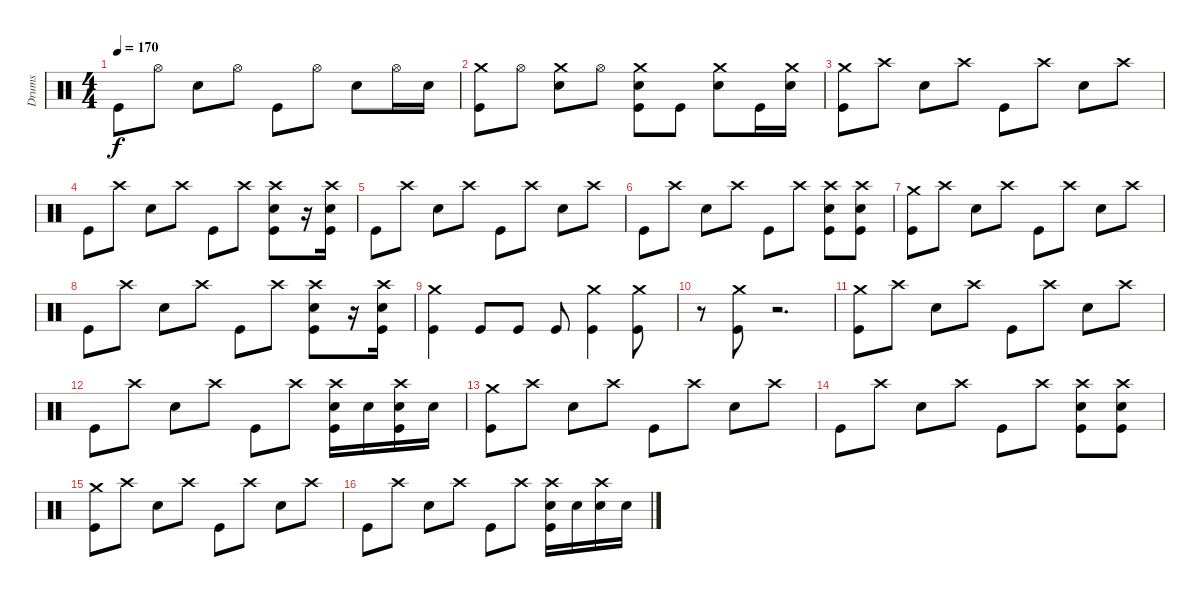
\track ("Drums" "Drums") {instrument percussion}
\staff {score}
\articulation defaults
\ts (4 4)
\tempo 170
\clef neutral
\ks c "Kick (hit)".8{dy f} "Hi-Hat (open)".8 "Electric Snare (hit)".8 "Hi-Hat (open)".8 "Kick (hit)".8 "Hi-Hat (open)".8 "Electric Snare (hit)".8 "Hi-Hat (open)".16 "Electric Snare (hit)".16
|
("Crash medium (hit)" "Kick (hit)").8 "Hi-Hat (open)".8 ("Crash medium (hit)" "Electric Snare (hit)").8 "Hi-Hat (open)".8 ("Crash medium (hit)" "Electric Snare (hit)" "Kick (hit)").8 "Kick (hit)".8 ("Crash medium (hit)" "Electric Snare (hit)").8 "Kick (hit)".16 ("Crash medium (hit)" "Electric Snare (hit)").16 |
("Crash medium (hit)" "Kick (hit)").8 "Crash high (hit)".8 "Electric Snare (hit)".8 "Crash high (hit)".8 "Kick (hit)".8 "Crash high (hit)".8 "Electric Snare (hit)".8 "Crash high (hit)".8 |
"Kick (hit)".8 "Crash high (hit)".8 "Electric Snare (hit)".8 "Crash high (hit)".8 "Kick (hit)".8 "Crash high (hit)".8 ("Crash high (hit)" "Electric Snare (hit)" "Kick (hit)").8 r.16 ("Crash high (hit)" "Electric Snare (hit)" "Kick (hit)").16 |
"Kick (hit)".8 "Crash high (hit)".8 "Electric Snare (hit)".8 "Crash high (hit)".8 "Kick (hit)".8 "Crash high (hit)".8 "Electric Snare (hit)".8 "Crash high (hit)".8 |
"Kick (hit)".8 "Crash high (hit)".8 "Electric Snare (hit)".8 "Crash high (hit)".8 "Kick (hit)".8 "Crash high (hit)".8 ("Crash high (hit)" "Electric Snare (hit)" "Kick (hit)").8 ("Crash high (hit)" "Electric Snare (hit)" "Kick (hit)").8 |
("Crash medium (hit)" "Kick (hit)").8 "Crash high (hit)".8 "Electric Snare (hit)".8 "Crash high (hit)".8 "Kick (hit)".8 "Crash high (hit)".8 "Electric Snare (hit)".8 "Crash high (hit)".8 |
"Kick (hit)".8 "Crash high (hit)".8 "Electric Snare (hit)".8 "Crash high (hit)".8 "Kick (hit)".8 "Crash high (hit)".8 ("Crash high (hit)" "Electric Snare (hit)" "Kick (hit)").8 r.16 ("Crash high (hit)" "Electric Snare (hit)" "Kick (hit)").16 |
("Crash medium (hit)" "Kick (hit)").4 "Kick (hit)".8 "Kick (hit)".8 "Kick (hit)".8 ("Crash medium (hit)" "Kick (hit)").4 ("Crash medium (hit)" "Kick (hit)").8 |
r.8 ("Crash medium (hit)" "Kick (hit)").8 r.2{d} |
("Crash medium (hit)" "Kick (hit)").8 "Crash high (hit)".8 "Electric Snare (hit)".8 "Crash high (hit)".8 "Kick (hit)".8 "Crash high (hit)".8 "Electric Snare (hit)".8 "Crash high (hit)".8 |
"Kick (hit)".8 "Crash high (hit)".8 "Electric Snare (hit)".8 "Crash high (hit)".8 "Kick (hit)".8 "Crash high (hit)".8 ("Crash high (hit)" "Electric Snare (hit)" "Kick (hit)").16 "Electric Snare (hit)".16 ("Crash high (hit)" "Electric Snare (hit)" "Kick (hit)").16 "Electric Snare (hit)".16 |
("Crash medium (hit)" "Kick (hit)").8 "Crash high (hit)".8 "Electric Snare (hit)".8 "Crash high (hit)".8 "Kick (hit)".8 "Crash high (hit)".8 "Electric Snare (hit)".8 "Crash high (hit)".8 |
"Kick (hit)".8 "Crash high (hit)".8 "Electric Snare (hit)".8 "Crash high (hit)".8 "Kick (hit)".8 "Crash high (hit)".8 ("Crash high (hit)" "Electric Snare (hit)" "Kick (hit)").8 ("Crash high (hit)" "Electric Snare (hit)" "Kick (hit)").8 |
("Crash medium (hit)" "Kick (hit)").8 "Crash high (hit)".8 "Electric Snare (hit)".8 "Crash high (hit)".8 "Kick (hit)".8 "Crash high (hit)".8 "Electric Snare (hit)".8 "Crash high (hit)".8 |
"Kick (hit)".8 "Crash high (hit)".8 "Electric Snare (hit)".8 "Crash high (hit)".8 "Kick (hit)".8 "Crash high (hit)".8 ("Crash high (hit)" "Electric Snare (hit)" "Kick (hit)").16 "Electric Snare (hit)".16 ("Crash high (hit)" "Electric Snare (hit)").16 "Electric Snare (hit)".16
